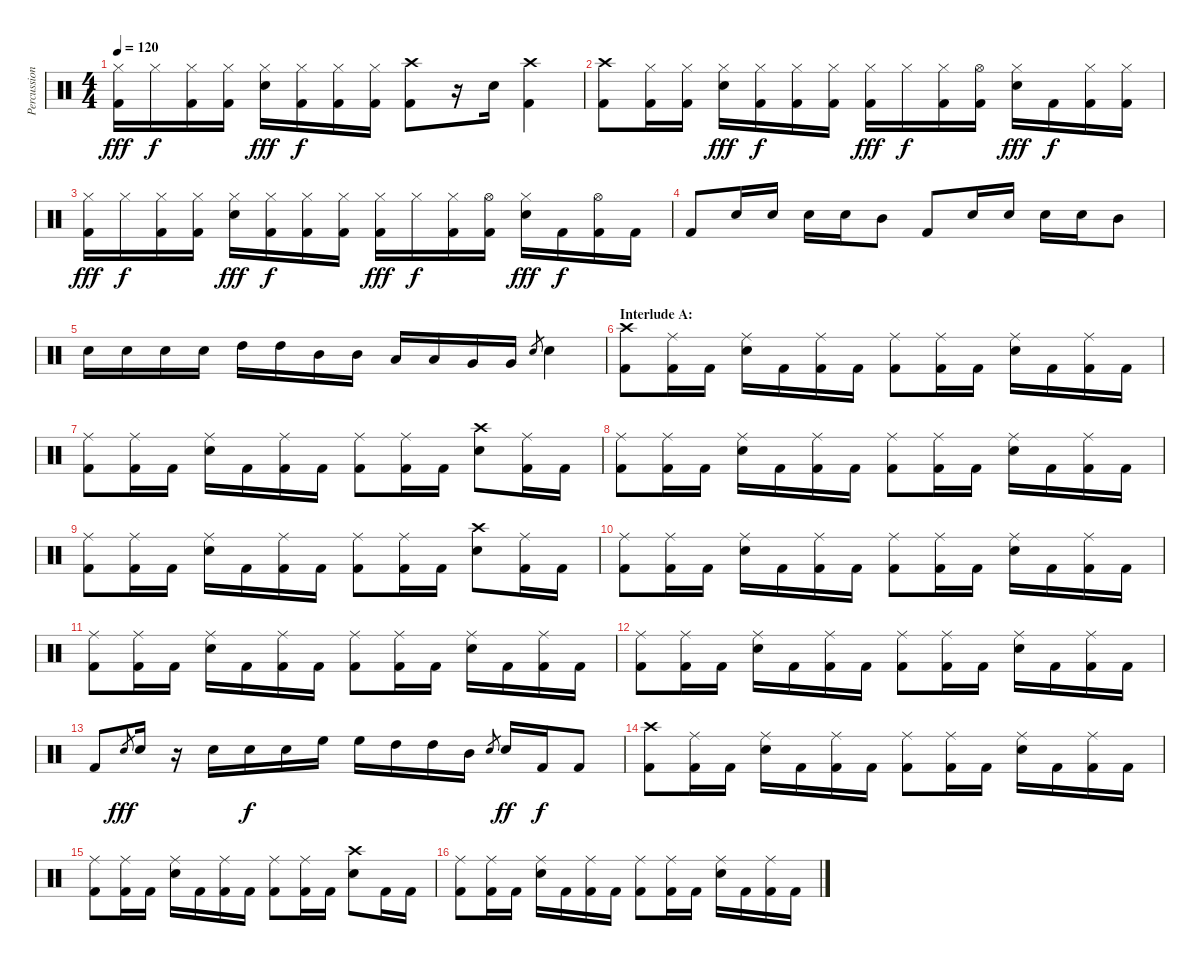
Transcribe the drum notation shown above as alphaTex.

\track ("Percussion" "Percussion") {instrument percussion}
\staff {score}
\articulation defaults
\ts (4 4)
\tempo 120
\clef neutral
\ks c
("Hi-Hat (closed)" "Kick (hit) 2").16{dy fff} "Hi-Hat (closed)".16{dy f} ("Hi-Hat (closed)" "Kick (hit) 2").16 ("Hi-Hat (closed)" "Kick (hit) 2").16 ("Hi-Hat (closed)" "Electric Snare (hit)").16{dy fff} ("Hi-Hat (closed)" "Kick (hit) 2").16{dy f} ("Hi-Hat (closed)" "Kick (hit) 2").16 ("Hi-Hat (closed)" "Kick (hit) 2").16 ("Crash high (hit)" "Kick (hit) 2").8 r.16 "Electric Snare (hit)".16 ("Crash high (hit)" "Kick (hit) 2").4 |
("Crash high (hit)" "Kick (hit) 2").8 ("Hi-Hat (closed)" "Kick (hit) 2").16 ("Hi-Hat (closed)" "Kick (hit) 2").16 ("Hi-Hat (closed)" "Electric Snare (hit)").16{dy fff} ("Hi-Hat (closed)" "Kick (hit) 2").16{dy f} ("Hi-Hat (closed)" "Kick (hit) 2").16 ("Hi-Hat (closed)" "Kick (hit) 2").16 ("Hi-Hat (closed)" "Kick (hit) 2").16{dy fff} "Hi-Hat (closed)".16{dy f} ("Hi-Hat (closed)" "Kick (hit) 2").16 ("Hi-Hat (open)" "Kick (hit) 2").16 ("Hi-Hat (closed)" "Electric Snare (hit)").16{dy fff} "Kick (hit) 2".16{dy f} ("Hi-Hat (closed)" "Kick (hit) 2").16 ("Hi-Hat (closed)" "Kick (hit) 2").16 |
("Hi-Hat (closed)" "Kick (hit) 2").16{dy fff} "Hi-Hat (closed)".16{dy f} ("Hi-Hat (closed)" "Kick (hit) 2").16 ("Hi-Hat (closed)" "Kick (hit) 2").16 ("Hi-Hat (closed)" "Electric Snare (hit)").16{dy fff} ("Hi-Hat (closed)" "Kick (hit) 2").16{dy f} ("Hi-Hat (closed)" "Kick (hit) 2").16 ("Hi-Hat (closed)" "Kick (hit) 2").16 ("Hi-Hat (closed)" "Kick (hit) 2").16{dy fff} "Hi-Hat (closed)".16{dy f} ("Hi-Hat (closed)" "Kick (hit) 2").16 ("Hi-Hat (open)" "Kick (hit) 2").16 ("Hi-Hat (closed)" "Electric Snare (hit)").16{dy fff} "Kick (hit) 2".16{dy f} ("Hi-Hat (open)" "Kick (hit) 2").16 "Kick (hit) 2".16 |
"Kick (hit) 2".8 "Electric Snare (hit)".16 "Electric Snare (hit)".16 "Electric Snare (hit)".16 "Electric Snare (hit)".16 "Mid Tom (hit)".8 "Kick (hit) 2".8 "Electric Snare (hit)".16 "Electric Snare (hit)".16 "Electric Snare (hit)".16 "Electric Snare (hit)".16 "Mid Tom (hit)".8 |
"Electric Snare (hit)".16 "Electric Snare (hit)".16 "Electric Snare (hit)".16 "Electric Snare (hit)".16 "High Tom (hit)".16 "High Tom (hit)".16 "Mid Tom (hit)".16 "Mid Tom (hit)".16 "Low Tom (hit)".16 "Low Tom (hit)".16 "Very Low Tom (hit)".16 "Very Low Tom (hit)".16 "Electric Snare (hit)".8{gr} "Electric Snare (hit)".4 |
\section ("" "Interlude A:")
("Crash high (hit)" "Kick (hit) 2").8 ("Ride (middle)" "Kick (hit) 2").16 "Kick (hit) 2".16 ("Ride (middle)" "Electric Snare (hit)").16 "Kick (hit) 2".16 ("Ride (middle)" "Kick (hit) 2").16 "Kick (hit) 2".16 ("Ride (middle)" "Kick (hit) 2").8 ("Ride (middle)" "Kick (hit) 2").16 "Kick (hit) 2".16 ("Ride (middle)" "Electric Snare (hit)").16 "Kick (hit) 2".16 ("Ride (middle)" "Kick (hit) 2").16 "Kick (hit) 2".16 |
("Ride (middle)" "Kick (hit) 2").8 ("Ride (middle)" "Kick (hit) 2").16 "Kick (hit) 2".16 ("Ride (middle)" "Electric Snare (hit)").16 "Kick (hit) 2".16 ("Ride (middle)" "Kick (hit) 2").16 "Kick (hit) 2".16 ("Ride (middle)" "Kick (hit) 2").8 ("Ride (middle)" "Kick (hit) 2").16 "Kick (hit) 2".16 ("Crash high (hit)" "Electric Snare (hit)").8 ("Ride (middle)" "Kick (hit) 2").16 "Kick (hit) 2".16 |
("Ride (middle)" "Kick (hit) 2").8 ("Ride (middle)" "Kick (hit) 2").16 "Kick (hit) 2".16 ("Ride (middle)" "Electric Snare (hit)").16 "Kick (hit) 2".16 ("Ride (middle)" "Kick (hit) 2").16 "Kick (hit) 2".16 ("Ride (middle)" "Kick (hit) 2").8 ("Ride (middle)" "Kick (hit) 2").16 "Kick (hit) 2".16 ("Ride (middle)" "Electric Snare (hit)").16 "Kick (hit) 2".16 ("Ride (middle)" "Kick (hit) 2").16 "Kick (hit) 2".16 |
("Ride (middle)" "Kick (hit) 2").8 ("Ride (middle)" "Kick (hit) 2").16 "Kick (hit) 2".16 ("Ride (middle)" "Electric Snare (hit)").16 "Kick (hit) 2".16 ("Ride (middle)" "Kick (hit) 2").16 "Kick (hit) 2".16 ("Ride (middle)" "Kick (hit) 2").8 ("Ride (middle)" "Kick (hit) 2").16 "Kick (hit) 2".16 ("Crash high (hit)" "Electric Snare (hit)").8 ("Ride (middle)" "Kick (hit) 2").16 "Kick (hit) 2".16 |
("Ride (middle)" "Kick (hit) 2").8 ("Ride (middle)" "Kick (hit) 2").16 "Kick (hit) 2".16 ("Ride (middle)" "Electric Snare (hit)").16 "Kick (hit) 2".16 ("Ride (middle)" "Kick (hit) 2").16 "Kick (hit) 2".16 ("Ride (middle)" "Kick (hit) 2").8 ("Ride (middle)" "Kick (hit) 2").16 "Kick (hit) 2".16 ("Ride (middle)" "Electric Snare (hit)").16 "Kick (hit) 2".16 ("Ride (middle)" "Kick (hit) 2").16 "Kick (hit) 2".16 |
("Ride (middle)" "Kick (hit) 2").8 ("Ride (middle)" "Kick (hit) 2").16 "Kick (hit) 2".16 ("Ride (middle)" "Electric Snare (hit)").16 "Kick (hit) 2".16 ("Ride (middle)" "Kick (hit) 2").16 "Kick (hit) 2".16 ("Ride (middle)" "Kick (hit) 2").8 ("Ride (middle)" "Kick (hit) 2").16 "Kick (hit) 2".16 ("Ride (middle)" "Electric Snare (hit)").16 "Kick (hit) 2".16 ("Ride (middle)" "Kick (hit) 2").16 "Kick (hit) 2".16 |
("Ride (middle)" "Kick (hit) 2").8 ("Ride (middle)" "Kick (hit) 2").16 "Kick (hit) 2".16 ("Ride (middle)" "Electric Snare (hit)").16 "Kick (hit) 2".16 ("Ride (middle)" "Kick (hit) 2").16 "Kick (hit) 2".16 ("Ride (middle)" "Kick (hit) 2").8 ("Ride (middle)" "Kick (hit) 2").16 "Kick (hit) 2".16 ("Ride (middle)" "Electric Snare (hit)").16 "Kick (hit) 2".16 ("Ride (middle)" "Kick (hit) 2").16 "Kick (hit) 2".16 |
"Kick (hit) 2".8 "Electric Snare (hit)".8{gr dy fff} "Electric Snare (hit)".16 r.16 "Electric Snare (hit)".16 "Electric Snare (hit)".16{dy f} "Electric Snare (hit)".16 "High Floor Tom (hit)".16 "High Floor Tom (hit)".16 "High Tom (hit)".16 "High Tom (hit)".16 "Mid Tom (hit)".16 "Electric Snare (hit)".8{gr} "Electric Snare (hit)".16{dy ff} "Kick (hit) 2".16{dy f} "Kick (hit) 2".8 |
("Crash high (hit)" "Kick (hit) 2").8 ("Ride (middle)" "Kick (hit) 2").16 "Kick (hit) 2".16 ("Ride (middle)" "Electric Snare (hit)").16 "Kick (hit) 2".16 ("Ride (middle)" "Kick (hit) 2").16 "Kick (hit) 2".16 ("Ride (middle)" "Kick (hit) 2").8 ("Ride (middle)" "Kick (hit) 2").16 "Kick (hit) 2".16 ("Ride (middle)" "Electric Snare (hit)").16 "Kick (hit) 2".16 ("Ride (middle)" "Kick (hit) 2").16 "Kick (hit) 2".16 |
("Ride (middle)" "Kick (hit) 2").8 ("Ride (middle)" "Kick (hit) 2").16 "Kick (hit) 2".16 ("Ride (middle)" "Electric Snare (hit)").16 "Kick (hit) 2".16 ("Ride (middle)" "Kick (hit) 2").16 "Kick (hit) 2".16 ("Ride (middle)" "Kick (hit) 2").8 ("Ride (middle)" "Kick (hit) 2").16 "Kick (hit) 2".16 ("Crash high (hit)" "Electric Snare (hit)").8 "Kick (hit) 2".16 "Kick (hit) 2".16 |
("Ride (middle)" "Kick (hit) 2").8 ("Ride (middle)" "Kick (hit) 2").16 "Kick (hit) 2".16 ("Ride (middle)" "Electric Snare (hit)").16 "Kick (hit) 2".16 ("Ride (middle)" "Kick (hit) 2").16 "Kick (hit) 2".16 ("Ride (middle)" "Kick (hit) 2").8 ("Ride (middle)" "Kick (hit) 2").16 "Kick (hit) 2".16 ("Ride (middle)" "Electric Snare (hit)").16 "Kick (hit) 2".16 ("Ride (middle)" "Kick (hit) 2").16 "Kick (hit) 2".16
